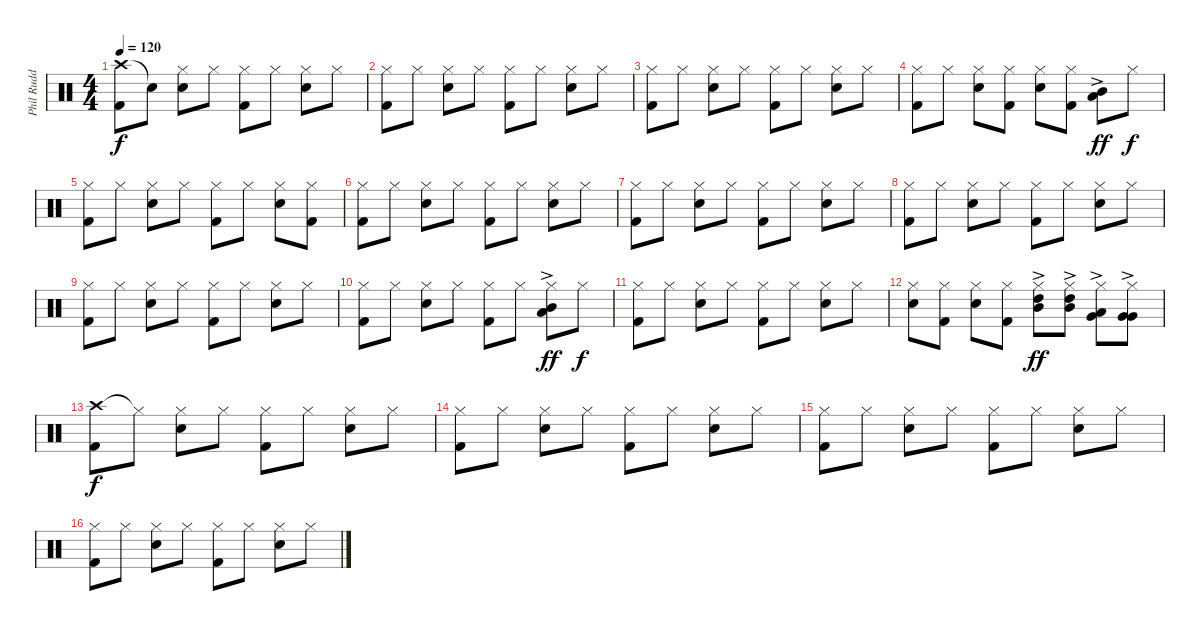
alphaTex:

\track ("Phil Rudd" "Phil Rudd") {instrument percussion}
\staff {score}
\articulation defaults
\ts (4 4)
\tempo 120
\clef neutral
\ks c
("Crash high (hit)" "Kick (hit) 2").8{dy f} "Snare (hit)"{t}.8 ("Hi-Hat (closed)" "Snare (hit) 2").8 "Hi-Hat (closed)".8 ("Hi-Hat (closed)" "Kick (hit) 2").8 "Hi-Hat (closed)".8 ("Hi-Hat (closed)" "Snare (hit) 2").8 "Hi-Hat (closed)".8 |
("Hi-Hat (closed)" "Kick (hit) 2").8 "Hi-Hat (closed)".8 ("Hi-Hat (closed)" "Snare (hit) 2").8 "Hi-Hat (closed)".8 ("Hi-Hat (closed)" "Kick (hit) 2").8 "Hi-Hat (closed)".8 ("Hi-Hat (closed)" "Snare (hit) 2").8 "Hi-Hat (closed)".8 |
("Hi-Hat (closed)" "Kick (hit) 2").8 "Hi-Hat (closed)".8 ("Hi-Hat (closed)" "Snare (hit) 2").8 "Hi-Hat (closed)".8 ("Hi-Hat (closed)" "Kick (hit) 2").8 "Hi-Hat (closed)".8 ("Hi-Hat (closed)" "Snare (hit) 2").8 "Hi-Hat (closed)".8 |
("Hi-Hat (closed)" "Kick (hit) 2").8 "Hi-Hat (closed)".8 ("Hi-Hat (closed)" "Snare (hit) 2").8 ("Hi-Hat (closed)" "Kick (hit) 2").8 ("Hi-Hat (closed)" "Snare (hit) 2").8 ("Hi-Hat (closed)" "Kick (hit) 2").8 ("Mid Tom (hit)"{ac} "Low Tom (hit)").8{dy ff} "Hi-Hat (closed)".8{dy f} |
("Hi-Hat (closed)" "Kick (hit) 2").8 "Hi-Hat (closed)".8 ("Hi-Hat (closed)" "Snare (hit) 2").8 "Hi-Hat (closed)".8 ("Hi-Hat (closed)" "Kick (hit) 2").8 "Hi-Hat (closed)".8 ("Hi-Hat (closed)" "Snare (hit) 2").8 ("Hi-Hat (closed)" "Kick (hit) 2").8 |
("Hi-Hat (closed)" "Kick (hit) 2").8 "Hi-Hat (closed)".8 ("Hi-Hat (closed)" "Snare (hit) 2").8 "Hi-Hat (closed)".8 ("Hi-Hat (closed)" "Kick (hit) 2").8 "Hi-Hat (closed)".8 ("Hi-Hat (closed)" "Snare (hit) 2").8 "Hi-Hat (closed)".8 |
("Hi-Hat (closed)" "Kick (hit) 2").8 "Hi-Hat (closed)".8 ("Hi-Hat (closed)" "Snare (hit) 2").8 "Hi-Hat (closed)".8 ("Hi-Hat (closed)" "Kick (hit) 2").8 "Hi-Hat (closed)".8 ("Hi-Hat (closed)" "Snare (hit) 2").8 "Hi-Hat (closed)".8 |
("Hi-Hat (closed)" "Kick (hit) 2").8 "Hi-Hat (closed)".8 ("Hi-Hat (closed)" "Snare (hit) 2").8 "Hi-Hat (closed)".8 ("Hi-Hat (closed)" "Kick (hit) 2").8 "Hi-Hat (closed)".8 ("Hi-Hat (closed)" "Snare (hit) 2").8 "Hi-Hat (closed)".8 |
("Hi-Hat (closed)" "Kick (hit) 2").8 "Hi-Hat (closed)".8 ("Hi-Hat (closed)" "Snare (hit) 2").8 "Hi-Hat (closed)".8 ("Hi-Hat (closed)" "Kick (hit) 2").8 "Hi-Hat (closed)".8 ("Hi-Hat (closed)" "Snare (hit) 2").8 "Hi-Hat (closed)".8 |
("Hi-Hat (closed)" "Kick (hit) 2").8 "Hi-Hat (closed)".8 ("Hi-Hat (closed)" "Snare (hit) 2").8 "Hi-Hat (closed)".8 ("Hi-Hat (closed)" "Kick (hit) 2").8 "Hi-Hat (closed)".8 ("Hi-Hat (closed)" "Mid Tom (hit)"{ac} "Low Tom (hit)").8{dy ff} "Hi-Hat (closed)".8{dy f} |
("Hi-Hat (closed)" "Kick (hit) 2").8 "Hi-Hat (closed)".8 ("Hi-Hat (closed)" "Snare (hit) 2").8 "Hi-Hat (closed)".8 ("Hi-Hat (closed)" "Kick (hit) 2").8 "Hi-Hat (closed)".8 ("Hi-Hat (closed)" "Snare (hit) 2").8 "Hi-Hat (closed)".8 |
("Hi-Hat (closed)" "Snare (hit) 2").8 ("Hi-Hat (closed)" "Kick (hit) 2").8 ("Hi-Hat (closed)" "Snare (hit) 2").8 ("Hi-Hat (closed)" "Kick (hit) 2").8 ("Hi-Hat (closed)" "High Tom (hit)"{ac} "Mid Tom (hit)").8{dy ff} ("Hi-Hat (closed)" "High Tom (hit)" "Mid Tom (hit)"{ac}).8 ("Hi-Hat (closed)" "Low Tom (hit)"{ac} "Very Low Tom (hit)").8 ("Hi-Hat (closed)" "Very Low Tom (hit)"{ac} "Very Low Tom (hit)").8 |
("Crash high (hit)" "Kick (hit) 2").8{dy f} "Hi-Hat (closed)"{t}.8 ("Hi-Hat (closed)" "Snare (hit) 2").8 "Hi-Hat (closed)".8 ("Hi-Hat (closed)" "Kick (hit) 2").8 "Hi-Hat (closed)".8 ("Hi-Hat (closed)" "Snare (hit) 2").8 "Hi-Hat (closed)".8 |
("Hi-Hat (closed)" "Kick (hit) 2").8 "Hi-Hat (closed)".8 ("Hi-Hat (closed)" "Snare (hit) 2").8 "Hi-Hat (closed)".8 ("Hi-Hat (closed)" "Kick (hit) 2").8 "Hi-Hat (closed)".8 ("Hi-Hat (closed)" "Snare (hit) 2").8 "Hi-Hat (closed)".8 |
("Hi-Hat (closed)" "Kick (hit) 2").8 "Hi-Hat (closed)".8 ("Hi-Hat (closed)" "Snare (hit) 2").8 "Hi-Hat (closed)".8 ("Hi-Hat (closed)" "Kick (hit) 2").8 "Hi-Hat (closed)".8 ("Hi-Hat (closed)" "Snare (hit) 2").8 "Hi-Hat (closed)".8 |
("Hi-Hat (closed)" "Kick (hit) 2").8 "Hi-Hat (closed)".8 ("Hi-Hat (closed)" "Snare (hit) 2").8 "Hi-Hat (closed)".8 ("Hi-Hat (closed)" "Kick (hit) 2").8 "Hi-Hat (closed)".8 ("Hi-Hat (closed)" "Snare (hit) 2").8 "Hi-Hat (closed)".8
